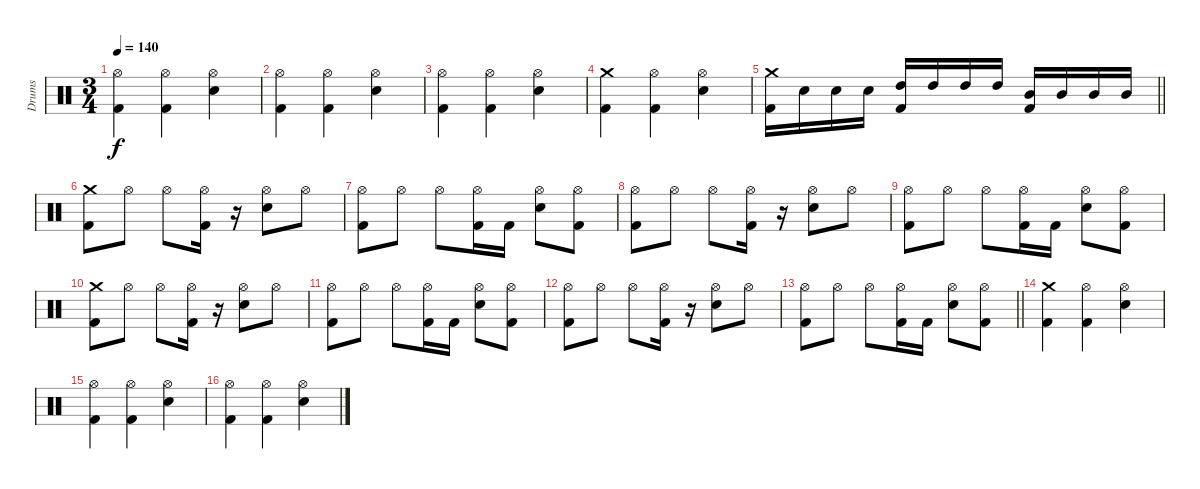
\track ("Drums" "Drums") {instrument percussion}
\staff {score}
\articulation defaults
\ts (3 4)
\tempo 140
\clef neutral
\ks c
("Kick (hit) 2" "Hi-Hat (open)").4{dy f} ("Kick (hit) 2" "Hi-Hat (open)").4 ("Hi-Hat (open)" "Electric Snare (hit)").4 |
("Kick (hit) 2" "Hi-Hat (open)").4 ("Kick (hit) 2" "Hi-Hat (open)").4 ("Hi-Hat (open)" "Electric Snare (hit)").4 |
("Kick (hit) 2" "Hi-Hat (open)").4 ("Kick (hit) 2" "Hi-Hat (open)").4 ("Hi-Hat (open)" "Electric Snare (hit)").4 |
("Kick (hit) 2" "Crash medium (hit)").4 ("Kick (hit) 2" "Hi-Hat (open)").4 ("Hi-Hat (open)" "Electric Snare (hit)").4 |
\barLineRight lightlight
("Kick (hit) 2" "Crash medium (hit)").16 "Electric Snare (hit)".16 "Electric Snare (hit)".16 "Electric Snare (hit)".16 ("Kick (hit) 2" "High Tom (hit)").16 "High Tom (hit)".16 "High Tom (hit)".16 "High Tom (hit)".16 ("Kick (hit) 2" "Mid Tom (hit)").16 "Mid Tom (hit)".16 "Mid Tom (hit)".16 "Mid Tom (hit)".16 |
("Kick (hit) 2" "Crash medium (hit)").8 "Hi-Hat (open)".8 "Hi-Hat (open)".8 ("Kick (hit) 2" "Hi-Hat (open)").16 r.16 ("Electric Snare (hit)" "Hi-Hat (open)").8 "Hi-Hat (open)".8 |
("Kick (hit) 2" "Hi-Hat (open)").8 "Hi-Hat (open)".8 "Hi-Hat (open)".8 ("Kick (hit) 2" "Hi-Hat (open)").16 "Kick (hit) 2".16 ("Electric Snare (hit)" "Hi-Hat (open)").8 ("Kick (hit) 2" "Hi-Hat (open)").8 |
("Kick (hit) 2" "Hi-Hat (open)").8 "Hi-Hat (open)".8 "Hi-Hat (open)".8 ("Kick (hit) 2" "Hi-Hat (open)").16 r.16 ("Electric Snare (hit)" "Hi-Hat (open)").8 "Hi-Hat (open)".8 |
("Kick (hit) 2" "Hi-Hat (open)").8 "Hi-Hat (open)".8 "Hi-Hat (open)".8 ("Kick (hit) 2" "Hi-Hat (open)").16 "Kick (hit) 2".16 ("Electric Snare (hit)" "Hi-Hat (open)").8 ("Kick (hit) 2" "Hi-Hat (open)").8 |
("Kick (hit) 2" "Crash medium (hit)").8 "Hi-Hat (open)".8 "Hi-Hat (open)".8 ("Kick (hit) 2" "Hi-Hat (open)").16 r.16 ("Electric Snare (hit)" "Hi-Hat (open)").8 "Hi-Hat (open)".8 |
("Kick (hit) 2" "Hi-Hat (open)").8 "Hi-Hat (open)".8 "Hi-Hat (open)".8 ("Kick (hit) 2" "Hi-Hat (open)").16 "Kick (hit) 2".16 ("Electric Snare (hit)" "Hi-Hat (open)").8 ("Kick (hit) 2" "Hi-Hat (open)").8 |
("Kick (hit) 2" "Hi-Hat (open)").8 "Hi-Hat (open)".8 "Hi-Hat (open)".8 ("Kick (hit) 2" "Hi-Hat (open)").16 r.16 ("Electric Snare (hit)" "Hi-Hat (open)").8 "Hi-Hat (open)".8 |
\barLineRight lightlight
("Kick (hit) 2" "Hi-Hat (open)").8 "Hi-Hat (open)".8 "Hi-Hat (open)".8 ("Kick (hit) 2" "Hi-Hat (open)").16 "Kick (hit) 2".16 ("Electric Snare (hit)" "Hi-Hat (open)").8 ("Kick (hit) 2" "Hi-Hat (open)").8 |
("Kick (hit) 2" "Crash medium (hit)").4 ("Kick (hit) 2" "Hi-Hat (open)").4 ("Hi-Hat (open)" "Electric Snare (hit)").4 |
("Kick (hit) 2" "Hi-Hat (open)").4 ("Kick (hit) 2" "Hi-Hat (open)").4 ("Hi-Hat (open)" "Electric Snare (hit)").4 |
("Kick (hit) 2" "Hi-Hat (open)").4 ("Kick (hit) 2" "Hi-Hat (open)").4 ("Hi-Hat (open)" "Electric Snare (hit)").4
